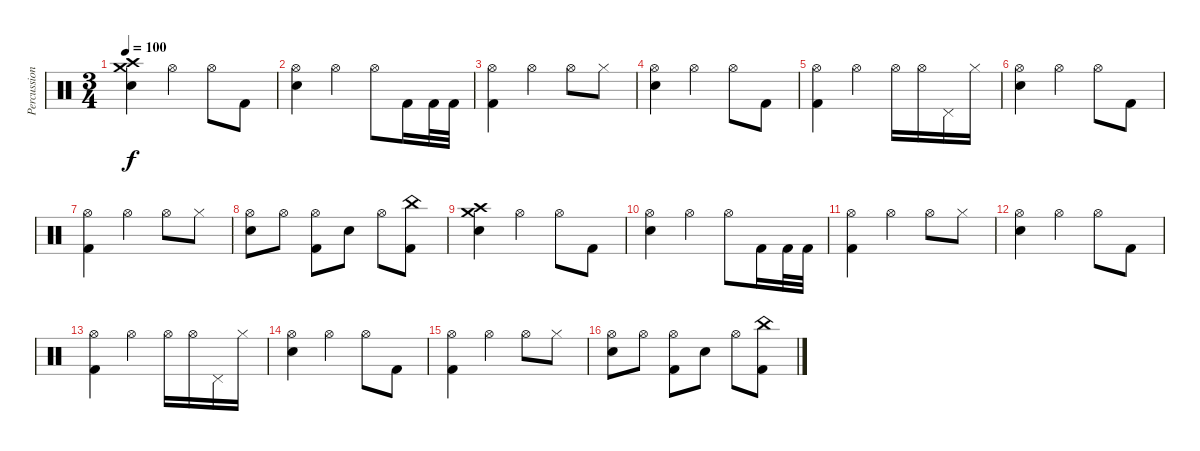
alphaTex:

\track ("Percussion" "Percussion") {instrument percussion}
\staff {score}
\articulation defaults
\ts (3 4)
\tempo 100
\clef neutral
\ks c
("Crash high (hit)" "Crash medium (hit)" "Hand Clap (hit)").4{dy f} "Hi-Hat (open)".4 "Hi-Hat (open)".8 "Kick (hit) 2".8 |
("Hi-Hat (open)" "Electric Snare (hit)").4 "Hi-Hat (open)".4 "Hi-Hat (open)".8 "Kick (hit) 2".16 "Kick (hit) 2".32 "Kick (hit) 2".32 |
("Hi-Hat (open)" "Kick (hit) 2").4 "Hi-Hat (open)".4 "Hi-Hat (open)".8 "Hi-Hat (closed)".8 |
("Hi-Hat (open)" "Electric Snare (hit)").4 "Hi-Hat (open)".4 "Hi-Hat (open)".8 "Kick (hit) 2".8 |
("Hi-Hat (open)" "Kick (hit) 2").4 "Hi-Hat (open)".4 "Hi-Hat (open)".16 "Hi-Hat (open)".16 "Pedal Hi-Hat (hit)".16 "Hi-Hat (closed)".16 |
("Hi-Hat (open)" "Electric Snare (hit)").4 "Hi-Hat (open)".4 "Hi-Hat (open)".8 "Kick (hit) 2".8 |
("Hi-Hat (open)" "Kick (hit) 2").4 "Hi-Hat (open)".4 "Hi-Hat (open)".8 "Hi-Hat (closed)".8 |
("Hi-Hat (open)" "Electric Snare (hit)").8 "Hi-Hat (open)".8 ("Hi-Hat (open)" "Kick (hit) 2").8 "Electric Snare (hit)".8 "Hi-Hat (open)".8 ("China (hit)" "Kick (hit) 2").8 |
("Crash high (hit)" "Crash medium (hit)" "Hand Clap (hit)").4 "Hi-Hat (open)".4 "Hi-Hat (open)".8 "Kick (hit) 2".8 |
("Hi-Hat (open)" "Electric Snare (hit)").4 "Hi-Hat (open)".4 "Hi-Hat (open)".8 "Kick (hit) 2".16 "Kick (hit) 2".32 "Kick (hit) 2".32 |
("Hi-Hat (open)" "Kick (hit) 2").4 "Hi-Hat (open)".4 "Hi-Hat (open)".8 "Hi-Hat (closed)".8 |
("Hi-Hat (open)" "Electric Snare (hit)").4 "Hi-Hat (open)".4 "Hi-Hat (open)".8 "Kick (hit) 2".8 |
("Hi-Hat (open)" "Kick (hit) 2").4 "Hi-Hat (open)".4 "Hi-Hat (open)".16 "Hi-Hat (open)".16 "Pedal Hi-Hat (hit)".16 "Hi-Hat (closed)".16 |
("Hi-Hat (open)" "Electric Snare (hit)").4 "Hi-Hat (open)".4 "Hi-Hat (open)".8 "Kick (hit) 2".8 |
("Hi-Hat (open)" "Kick (hit) 2").4 "Hi-Hat (open)".4 "Hi-Hat (open)".8 "Hi-Hat (closed)".8 |
("Hi-Hat (open)" "Electric Snare (hit)").8 "Hi-Hat (open)".8 ("Hi-Hat (open)" "Kick (hit) 2").8 "Electric Snare (hit)".8 "Hi-Hat (open)".8 ("China (hit)" "Kick (hit) 2").8
